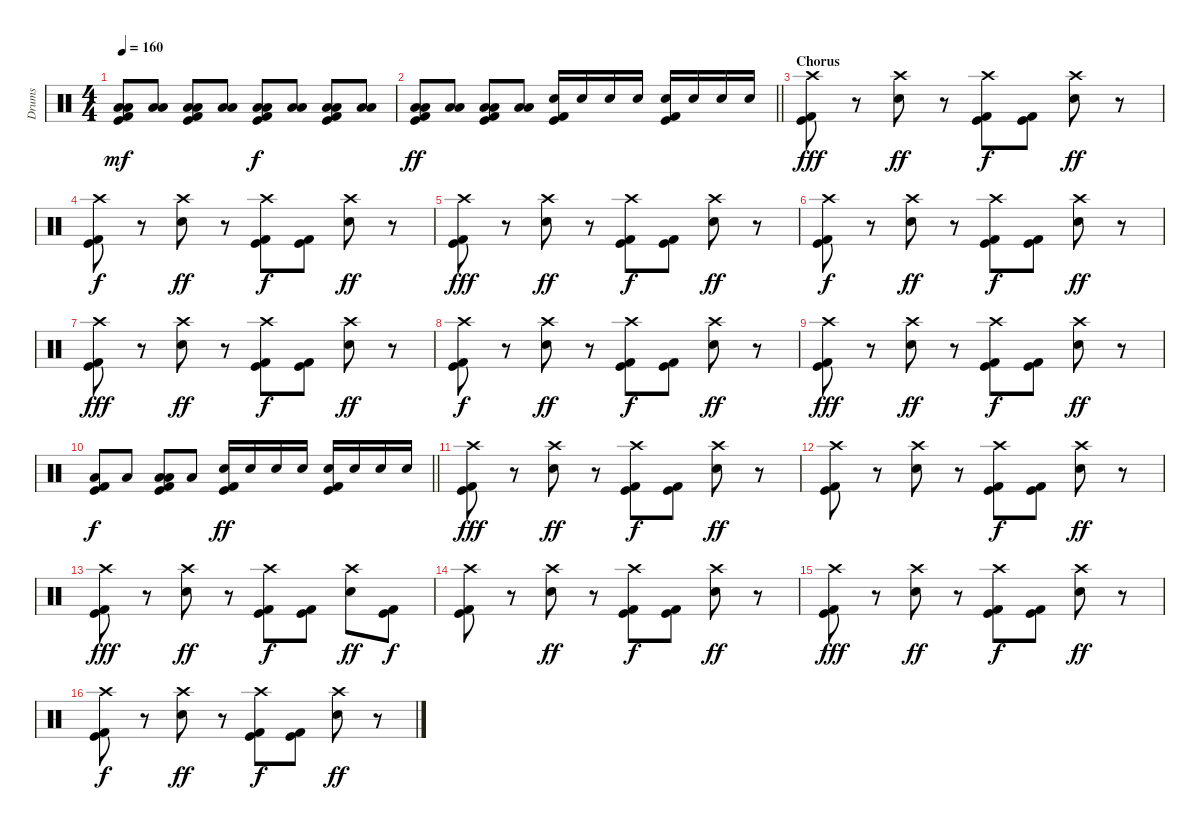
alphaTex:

\track ("Drums" "Drums") {instrument percussion}
\staff {score}
\articulation defaults
\ts (4 4)
\tempo 160
\clef neutral
\ks c
("Low Tom (hit)" "Low Floor Tom (hit)" "Kick (hit)" "Kick (hit) 2").8{dy mf} ("Low Tom (hit)" "Low Floor Tom (hit)").8 ("Low Tom (hit)" "Low Floor Tom (hit)" "Kick (hit)" "Kick (hit) 2").8 ("Low Tom (hit)" "Low Floor Tom (hit)").8 ("Low Tom (hit)" "Low Floor Tom (hit)" "Kick (hit)" "Kick (hit) 2").8{dy f} ("Low Tom (hit)" "Low Floor Tom (hit)").8 ("Low Tom (hit)" "Low Floor Tom (hit)" "Kick (hit)" "Kick (hit) 2").8 ("Low Tom (hit)" "Low Floor Tom (hit)").8 |
\barLineRight lightlight
("Low Tom (hit)" "Low Floor Tom (hit)" "Kick (hit)" "Kick (hit) 2").8{dy ff} ("Low Tom (hit)" "Low Floor Tom (hit)").8 ("Low Tom (hit)" "Low Floor Tom (hit)" "Kick (hit)" "Kick (hit) 2").8 ("Low Tom (hit)" "Low Floor Tom (hit)").8 ("Snare (hit) 2" "Kick (hit)" "Kick (hit) 2").16 "Snare (hit) 2".16 "Snare (hit) 2".16 "Snare (hit) 2".16 ("Snare (hit) 2" "Kick (hit)" "Kick (hit) 2").16 "Snare (hit) 2".16 "Snare (hit) 2".16 "Snare (hit) 2".16 |
\section ("" "Chorus")
("Crash high (hit)" "Kick (hit)" "Kick (hit) 2").8{dy fff} r.8 ("Crash high (hit)" "Snare (hit) 2").8{dy ff} r.8 ("Crash high (hit)" "Kick (hit)" "Kick (hit) 2").8{dy f} ("Kick (hit)" "Kick (hit) 2").8 ("Crash high (hit)" "Snare (hit) 2").8{dy ff} r.8 |
("Crash high (hit)" "Kick (hit)" "Kick (hit) 2").8{dy f} r.8 ("Crash high (hit)" "Snare (hit) 2").8{dy ff} r.8 ("Crash high (hit)" "Kick (hit)" "Kick (hit) 2").8{dy f} ("Kick (hit)" "Kick (hit) 2").8 ("Crash high (hit)" "Snare (hit) 2").8{dy ff} r.8 |
("Crash high (hit)" "Kick (hit)" "Kick (hit) 2").8{dy fff} r.8 ("Crash high (hit)" "Snare (hit) 2").8{dy ff} r.8 ("Crash high (hit)" "Kick (hit)" "Kick (hit) 2").8{dy f} ("Kick (hit)" "Kick (hit) 2").8 ("Crash high (hit)" "Snare (hit) 2").8{dy ff} r.8 |
("Crash high (hit)" "Kick (hit)" "Kick (hit) 2").8{dy f} r.8 ("Crash high (hit)" "Snare (hit) 2").8{dy ff} r.8 ("Crash high (hit)" "Kick (hit)" "Kick (hit) 2").8{dy f} ("Kick (hit)" "Kick (hit) 2").8 ("Crash high (hit)" "Snare (hit) 2").8{dy ff} r.8 |
("Crash high (hit)" "Kick (hit)" "Kick (hit) 2").8{dy fff} r.8 ("Crash high (hit)" "Snare (hit) 2").8{dy ff} r.8 ("Crash high (hit)" "Kick (hit)" "Kick (hit) 2").8{dy f} ("Kick (hit)" "Kick (hit) 2").8 ("Crash high (hit)" "Snare (hit) 2").8{dy ff} r.8 |
("Crash high (hit)" "Kick (hit)" "Kick (hit) 2").8{dy f} r.8 ("Crash high (hit)" "Snare (hit) 2").8{dy ff} r.8 ("Crash high (hit)" "Kick (hit)" "Kick (hit) 2").8{dy f} ("Kick (hit)" "Kick (hit) 2").8 ("Crash high (hit)" "Snare (hit) 2").8{dy ff} r.8 |
("Crash high (hit)" "Kick (hit)" "Kick (hit) 2").8{dy fff} r.8 ("Crash high (hit)" "Snare (hit) 2").8{dy ff} r.8 ("Crash high (hit)" "Kick (hit)" "Kick (hit) 2").8{dy f} ("Kick (hit)" "Kick (hit) 2").8 ("Crash high (hit)" "Snare (hit) 2").8{dy ff} r.8 |
\barLineRight lightlight
("Low Floor Tom (hit)" "Kick (hit)" "Kick (hit) 2").8{dy f} "Low Floor Tom (hit)".8 ("Low Tom (hit)" "Low Floor Tom (hit)" "Kick (hit)" "Kick (hit) 2").8 "Low Floor Tom (hit)".8 ("Snare (hit) 2" "Kick (hit)" "Kick (hit) 2").16{dy ff} "Snare (hit) 2".16 "Snare (hit) 2".16 "Snare (hit) 2".16 ("Snare (hit) 2" "Kick (hit)" "Kick (hit) 2").16 "Snare (hit) 2".16 "Snare (hit) 2".16 "Snare (hit) 2".16 |
("Crash high (hit)" "Kick (hit)" "Kick (hit) 2").8{dy fff} r.8 ("Crash high (hit)" "Snare (hit) 2").8{dy ff} r.8 ("Crash high (hit)" "Kick (hit)" "Kick (hit) 2").8{dy f} ("Kick (hit)" "Kick (hit) 2").8 ("Crash high (hit)" "Snare (hit) 2").8{dy ff} r.8 |
("Crash high (hit)" "Kick (hit)" "Kick (hit) 2").8 r.8 ("Crash high (hit)" "Snare (hit) 2").8 r.8 ("Crash high (hit)" "Kick (hit)" "Kick (hit) 2").8{dy f} ("Kick (hit)" "Kick (hit) 2").8 ("Crash high (hit)" "Snare (hit) 2").8{dy ff} r.8 |
("Crash high (hit)" "Kick (hit)" "Kick (hit) 2").8{dy fff} r.8 ("Crash high (hit)" "Snare (hit) 2").8{dy ff} r.8 ("Crash high (hit)" "Kick (hit)" "Kick (hit) 2").8{dy f} ("Kick (hit)" "Kick (hit) 2").8 ("Crash high (hit)" "Snare (hit) 2").8{dy ff} ("Kick (hit)" "Kick (hit) 2").8{dy f} |
("Crash high (hit)" "Kick (hit)" "Kick (hit) 2").8 r.8 ("Crash high (hit)" "Snare (hit) 2").8{dy ff} r.8 ("Crash high (hit)" "Kick (hit)" "Kick (hit) 2").8{dy f} ("Kick (hit)" "Kick (hit) 2").8 ("Crash high (hit)" "Snare (hit) 2").8{dy ff} r.8 |
("Crash high (hit)" "Kick (hit)" "Kick (hit) 2").8{dy fff} r.8 ("Crash high (hit)" "Snare (hit) 2").8{dy ff} r.8 ("Crash high (hit)" "Kick (hit)" "Kick (hit) 2").8{dy f} ("Kick (hit)" "Kick (hit) 2").8 ("Crash high (hit)" "Snare (hit) 2").8{dy ff} r.8 |
("Crash high (hit)" "Kick (hit)" "Kick (hit) 2").8{dy f} r.8 ("Crash high (hit)" "Snare (hit) 2").8{dy ff} r.8 ("Crash high (hit)" "Kick (hit)" "Kick (hit) 2").8{dy f} ("Kick (hit)" "Kick (hit) 2").8 ("Crash high (hit)" "Snare (hit) 2").8{dy ff} r.8
